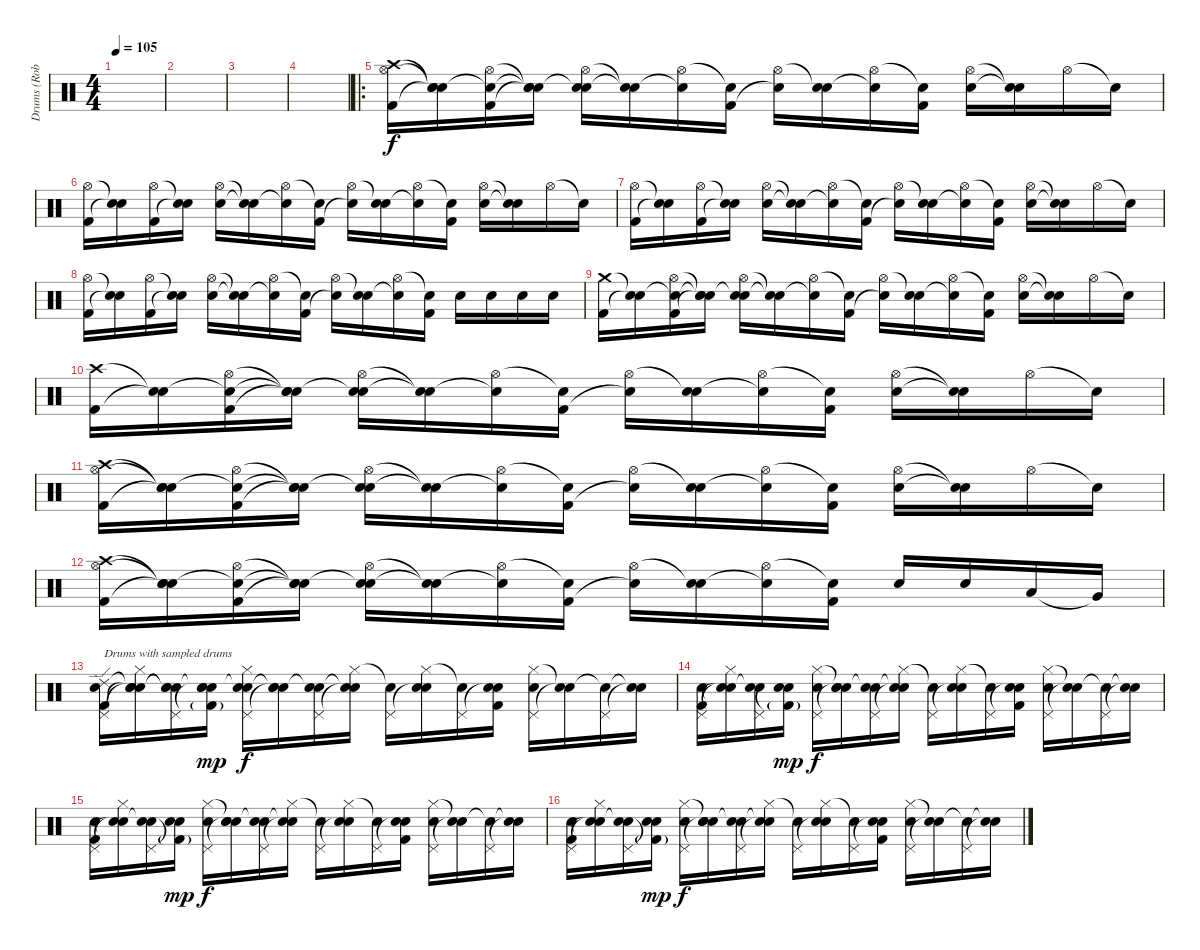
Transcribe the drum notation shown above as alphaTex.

\track ("Drums (Rob Bourdon)" "Drums (Rob") {instrument percussion}
\staff {score}
\articulation defaults
\ts (4 4)
\tempo 105
\clef neutral
\ks c
|
|
|
|
\ro
("Crash high (hit)" "Hi-Hat (open)" "Kick (hit) 2").16 ("Snare (hit)"{t} "Snare (hit)"{t} "Snare (hit)"{t}).16 ("Snare (hit)"{t} "Hi-Hat (open)" "Kick (hit) 2").16 ("Snare (hit)"{t} "Snare (hit)"{t} "Snare (hit)"{t}).16 ("Snare (hit)"{t} "Hi-Hat (open)" "Electric Snare (hit)").16 ("Snare (hit)"{t} "Snare (hit)"{t}).16 ("Hi-Hat (open)" "Snare (hit)"{t}).16 ("Snare (hit)"{t} "Kick (hit) 2").16 ("Hi-Hat (open)" "Snare (hit)"{t}).16 ("Snare (hit)"{t} "Electric Snare (hit)").16 ("Hi-Hat (open)" "Snare (hit)"{t}).16 ("Snare (hit)"{t} "Kick (hit) 2").16 ("Hi-Hat (open)" "Electric Snare (hit)").16 ("Snare (hit)"{t} "Electric Snare (hit)"{t}).16 "Hi-Hat (open)".16 "Snare (hit)"{t}.16 |
("Hi-Hat (open)" "Kick (hit) 2").16 ("Snare (hit)"{t} "Snare (hit)"{t}).16 ("Hi-Hat (open)" "Kick (hit) 2").16 ("Snare (hit)"{t} "Snare (hit)"{t}).16 ("Hi-Hat (open)" "Electric Snare (hit)").16 ("Snare (hit)"{t} "Snare (hit)"{t}).16 ("Hi-Hat (open)" "Snare (hit)"{t}).16 ("Snare (hit)"{t} "Kick (hit) 2").16 ("Hi-Hat (open)" "Snare (hit)"{t}).16 ("Snare (hit)"{t} "Electric Snare (hit)").16 ("Hi-Hat (open)" "Snare (hit)"{t}).16 ("Snare (hit)"{t} "Kick (hit) 2").16 ("Hi-Hat (open)" "Electric Snare (hit)").16 ("Snare (hit)"{t} "Electric Snare (hit)"{t}).16 "Hi-Hat (open)".16 "Snare (hit)"{t}.16 |
("Hi-Hat (open)" "Kick (hit) 2").16 ("Snare (hit)"{t} "Snare (hit)"{t}).16 ("Hi-Hat (open)" "Kick (hit) 2").16 ("Snare (hit)"{t} "Snare (hit)"{t}).16 ("Hi-Hat (open)" "Electric Snare (hit)").16 ("Snare (hit)"{t} "Snare (hit)"{t}).16 ("Hi-Hat (open)" "Snare (hit)"{t}).16 ("Snare (hit)"{t} "Kick (hit) 2").16 ("Hi-Hat (open)" "Snare (hit)"{t}).16 ("Snare (hit)"{t} "Electric Snare (hit)").16 ("Hi-Hat (open)" "Snare (hit)"{t}).16 ("Snare (hit)"{t} "Kick (hit) 2").16 ("Hi-Hat (open)" "Electric Snare (hit)").16 ("Snare (hit)"{t} "Electric Snare (hit)"{t}).16 "Hi-Hat (open)".16 "Snare (hit)"{t}.16 |
("Hi-Hat (open)" "Kick (hit) 2").16 ("Snare (hit)"{t} "Snare (hit)"{t}).16 ("Hi-Hat (open)" "Kick (hit) 2").16 ("Snare (hit)"{t} "Snare (hit)"{t}).16 ("Hi-Hat (open)" "Electric Snare (hit)").16 ("Snare (hit)"{t} "Snare (hit)"{t}).16 ("Hi-Hat (open)" "Snare (hit)"{t}).16 ("Snare (hit)"{t} "Kick (hit) 2").16 ("Hi-Hat (open)" "Snare (hit)"{t}).16 ("Snare (hit)"{t} "Electric Snare (hit)").16 ("Hi-Hat (open)" "Snare (hit)"{t}).16 ("Snare (hit)"{t} "Kick (hit) 2").16 "Electric Snare (hit)".16 "Electric Snare (hit)".16 "Electric Snare (hit)".16 "Electric Snare (hit)".16 |
("Crash medium (hit)" "Kick (hit) 2").16 ("Snare (hit)"{t} "Snare (hit)"{t}).16 ("Snare (hit)"{t} "Hi-Hat (open)" "Kick (hit) 2").16 ("Snare (hit)"{t} "Snare (hit)"{t} "Snare (hit)"{t}).16 ("Snare (hit)"{t} "Hi-Hat (open)" "Electric Snare (hit)").16 ("Snare (hit)"{t} "Snare (hit)"{t}).16 ("Hi-Hat (open)" "Snare (hit)"{t}).16 ("Snare (hit)"{t} "Kick (hit) 2").16 ("Hi-Hat (open)" "Snare (hit)"{t}).16 ("Snare (hit)"{t} "Electric Snare (hit)").16 ("Hi-Hat (open)" "Snare (hit)"{t}).16 ("Snare (hit)"{t} "Kick (hit) 2").16 ("Hi-Hat (open)" "Electric Snare (hit)").16 ("Snare (hit)"{t} "Electric Snare (hit)"{t}).16 "Hi-Hat (open)".16 "Snare (hit)"{t}.16 |
("Crash high (hit)" "Kick (hit) 2").16 ("Snare (hit)"{t} "Snare (hit)"{t}).16 ("Snare (hit)"{t} "Hi-Hat (open)" "Kick (hit) 2").16 ("Snare (hit)"{t} "Snare (hit)"{t} "Snare (hit)"{t}).16 ("Snare (hit)"{t} "Hi-Hat (open)" "Electric Snare (hit)").16 ("Snare (hit)"{t} "Snare (hit)"{t}).16 ("Hi-Hat (open)" "Snare (hit)"{t}).16 ("Snare (hit)"{t} "Kick (hit) 2").16 ("Hi-Hat (open)" "Snare (hit)"{t}).16 ("Snare (hit)"{t} "Electric Snare (hit)").16 ("Hi-Hat (open)" "Snare (hit)"{t}).16 ("Snare (hit)"{t} "Kick (hit) 2").16 ("Hi-Hat (open)" "Electric Snare (hit)").16 ("Snare (hit)"{t} "Electric Snare (hit)"{t}).16 "Hi-Hat (open)".16 "Snare (hit)"{t}.16 |
("Crash high (hit)" "Hi-Hat (open)" "Kick (hit) 2").16 ("Snare (hit)"{t} "Snare (hit)"{t} "Snare (hit)"{t}).16 ("Snare (hit)"{t} "Hi-Hat (open)" "Kick (hit) 2").16 ("Snare (hit)"{t} "Snare (hit)"{t} "Snare (hit)"{t}).16 ("Snare (hit)"{t} "Hi-Hat (open)" "Electric Snare (hit)").16 ("Snare (hit)"{t} "Snare (hit)"{t}).16 ("Hi-Hat (open)" "Snare (hit)"{t}).16 ("Snare (hit)"{t} "Kick (hit) 2").16 ("Hi-Hat (open)" "Snare (hit)"{t}).16 ("Snare (hit)"{t} "Electric Snare (hit)").16 ("Hi-Hat (open)" "Snare (hit)"{t}).16 ("Snare (hit)"{t} "Kick (hit) 2").16 ("Hi-Hat (open)" "Electric Snare (hit)").16 ("Snare (hit)"{t} "Electric Snare (hit)"{t}).16 "Hi-Hat (open)".16 "Snare (hit)"{t}.16 |
("Crash high (hit)" "Hi-Hat (open)" "Kick (hit) 2").16 ("Snare (hit)"{t} "Snare (hit)"{t} "Snare (hit)"{t}).16 ("Snare (hit)"{t} "Hi-Hat (open)" "Kick (hit) 2").16 ("Snare (hit)"{t} "Snare (hit)"{t} "Snare (hit)"{t}).16 ("Snare (hit)"{t} "Hi-Hat (open)" "Electric Snare (hit)").16 ("Snare (hit)"{t} "Snare (hit)"{t}).16 ("Hi-Hat (open)" "Snare (hit)"{t}).16 ("Snare (hit)"{t} "Kick (hit) 2").16 ("Hi-Hat (open)" "Snare (hit)"{t}).16 ("Snare (hit)"{t} "Electric Snare (hit)").16 ("Hi-Hat (open)" "Snare (hit)"{t}).16 ("Snare (hit)"{t} "Kick (hit) 2").16 "Electric Snare (hit)".16 "Electric Snare (hit)".16 "Low Tom (hit)".16 "Very Low Tom (hit)"{t}.16 |
("Ride (edge) 2" "Pedal Hi-Hat (hit)" "Snare (hit)" "Kick (hit) 2").16{txt "Drums with sampled drums"} ("Snare (hit)"{t} "Snare (hit)"{t} "Hi-Hat (closed)" "Snare (hit)"{t}).16 ("Snare (hit)"{t} "Pedal Hi-Hat (hit)" "Snare (hit)" "Snare (hit)"{t}).16 ("Snare (hit)"{t} "Snare (hit)"{t} "Snare (hit)" "Kick (hit) 2"{g}).16{dy mp} ("Snare (hit)"{t} "Pedal Hi-Hat (hit)" "Hi-Hat (closed)" "Electric Snare (hit)").16{dy f} ("Snare (hit)"{t} "Snare (hit)"{t} "Snare (hit)").16 ("Pedal Hi-Hat (hit)" "Snare (hit)"{t} "Snare (hit)").16 ("Snare (hit)"{t} "Hi-Hat (closed)" "Snare (hit)"{t}).16 ("Pedal Hi-Hat (hit)" "Snare (hit)"{t}).16 ("Snare (hit)"{t} "Hi-Hat (closed)" "Electric Snare (hit)").16 ("Pedal Hi-Hat (hit)" "Snare (hit)"{t}).16 ("Snare (hit)"{t} "Snare (hit)" "Kick (hit) 2").16 ("Pedal Hi-Hat (hit)" "Hi-Hat (closed)" "Electric Snare (hit)").16 ("Snare (hit)"{t} "Snare (hit)"{t}).16 ("Pedal Hi-Hat (hit)" "Snare (hit)"{t}).16 ("Snare (hit)"{t} "Snare (hit)"{t}).16 |
("Pedal Hi-Hat (hit)" "Snare (hit)" "Kick (hit) 2").16 ("Snare (hit)"{t} "Hi-Hat (closed)" "Snare (hit)"{t}).16 ("Pedal Hi-Hat (hit)" "Snare (hit)" "Snare (hit)"{t}).16 ("Snare (hit)"{t} "Snare (hit)" "Kick (hit) 2"{g}).16{dy mp} ("Pedal Hi-Hat (hit)" "Hi-Hat (closed)" "Electric Snare (hit)").16{dy f} ("Snare (hit)"{t} "Snare (hit)"{t} "Snare (hit)").16 ("Pedal Hi-Hat (hit)" "Snare (hit)"{t} "Snare (hit)").16 ("Snare (hit)"{t} "Hi-Hat (closed)" "Snare (hit)"{t}).16 ("Pedal Hi-Hat (hit)" "Snare (hit)"{t}).16 ("Snare (hit)"{t} "Hi-Hat (closed)" "Electric Snare (hit)").16 ("Pedal Hi-Hat (hit)" "Snare (hit)"{t}).16 ("Snare (hit)"{t} "Snare (hit)" "Kick (hit) 2").16 ("Pedal Hi-Hat (hit)" "Hi-Hat (closed)" "Electric Snare (hit)").16 ("Snare (hit)"{t} "Snare (hit)"{t}).16 ("Pedal Hi-Hat (hit)" "Snare (hit)"{t}).16 ("Snare (hit)"{t} "Snare (hit)"{t}).16 |
("Pedal Hi-Hat (hit)" "Snare (hit)" "Kick (hit) 2").16 ("Snare (hit)"{t} "Hi-Hat (closed)" "Snare (hit)"{t}).16 ("Pedal Hi-Hat (hit)" "Snare (hit)" "Snare (hit)"{t}).16 ("Snare (hit)"{t} "Snare (hit)" "Kick (hit) 2"{g}).16{dy mp} ("Pedal Hi-Hat (hit)" "Hi-Hat (closed)" "Electric Snare (hit)").16{dy f} ("Snare (hit)"{t} "Snare (hit)"{t} "Snare (hit)").16 ("Pedal Hi-Hat (hit)" "Snare (hit)"{t} "Snare (hit)").16 ("Snare (hit)"{t} "Hi-Hat (closed)" "Snare (hit)"{t}).16 ("Pedal Hi-Hat (hit)" "Snare (hit)"{t}).16 ("Snare (hit)"{t} "Hi-Hat (closed)" "Electric Snare (hit)").16 ("Pedal Hi-Hat (hit)" "Snare (hit)"{t}).16 ("Snare (hit)"{t} "Snare (hit)" "Kick (hit) 2").16 ("Pedal Hi-Hat (hit)" "Hi-Hat (closed)" "Electric Snare (hit)").16 ("Snare (hit)"{t} "Snare (hit)"{t}).16 ("Pedal Hi-Hat (hit)" "Snare (hit)"{t}).16 ("Snare (hit)"{t} "Snare (hit)"{t}).16 |
("Pedal Hi-Hat (hit)" "Snare (hit)" "Kick (hit) 2").16 ("Snare (hit)"{t} "Hi-Hat (closed)" "Snare (hit)"{t}).16 ("Pedal Hi-Hat (hit)" "Snare (hit)" "Snare (hit)"{t}).16 ("Snare (hit)"{t} "Snare (hit)" "Kick (hit) 2"{g}).16{dy mp} ("Pedal Hi-Hat (hit)" "Hi-Hat (closed)" "Electric Snare (hit)").16{dy f} ("Snare (hit)"{t} "Snare (hit)"{t} "Snare (hit)").16 ("Pedal Hi-Hat (hit)" "Snare (hit)"{t} "Snare (hit)").16 ("Snare (hit)"{t} "Hi-Hat (closed)" "Snare (hit)"{t}).16 ("Pedal Hi-Hat (hit)" "Snare (hit)"{t}).16 ("Snare (hit)"{t} "Hi-Hat (closed)" "Electric Snare (hit)").16 ("Pedal Hi-Hat (hit)" "Snare (hit)"{t}).16 ("Snare (hit)"{t} "Snare (hit)" "Kick (hit) 2").16 ("Pedal Hi-Hat (hit)" "Hi-Hat (closed)" "Electric Snare (hit)").16 ("Snare (hit)"{t} "Snare (hit)"{t}).16 ("Pedal Hi-Hat (hit)" "Snare (hit)"{t}).16 ("Snare (hit)"{t} "Snare (hit)"{t}).16
